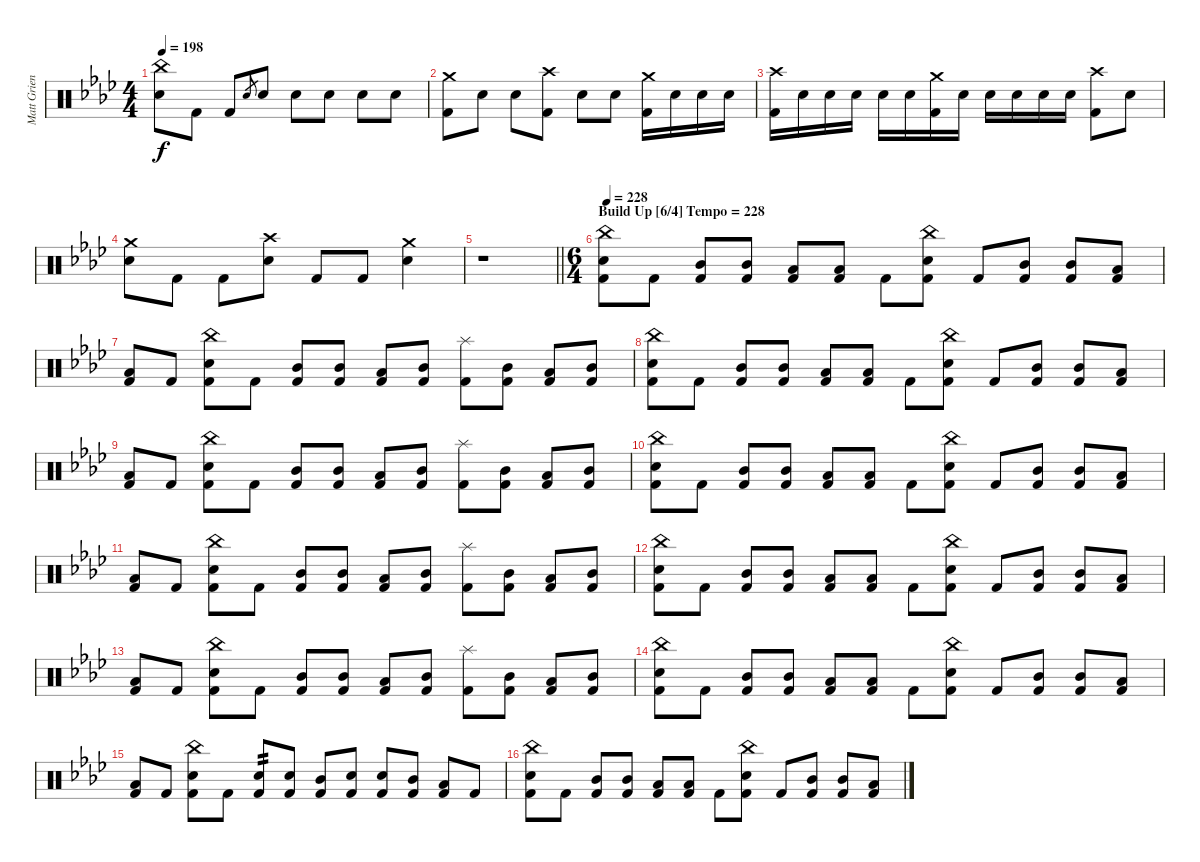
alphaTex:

\track ("Matt Griener [Drum Kit]" "Matt Grien") {instrument percussion}
\staff {score}
\articulation defaults
\ts (4 4)
\tempo 198
\clef neutral
\ks fminor
("China (hit)" "Electric Snare (hit)").8{dy f} "Kick (hit) 2".8 "Kick (hit) 2".8 "Electric Snare (hit)".8{gr} "Electric Snare (hit)".8 "Electric Snare (hit)".8 "Electric Snare (hit)".8 "Electric Snare (hit)".8 "Electric Snare (hit)".8 |
("Crash medium (hit)" "Kick (hit) 2").8 "Electric Snare (hit)".8 "Electric Snare (hit)".8 ("Crash high (hit)" "Kick (hit) 2").8 "Electric Snare (hit)".8 "Electric Snare (hit)".8 ("Crash medium (hit)" "Kick (hit) 2").16 "Electric Snare (hit)".16 "Electric Snare (hit)".16 "Electric Snare (hit)".16 |
("Crash high (hit)" "Kick (hit) 2").16 "Electric Snare (hit)".16 "Electric Snare (hit)".16 "Electric Snare (hit)".16 "Electric Snare (hit)".16 "Electric Snare (hit)".16 ("Crash medium (hit)" "Kick (hit) 2").16 "Electric Snare (hit)".16 "Electric Snare (hit)".16 "Electric Snare (hit)".16 "Electric Snare (hit)".16 "Electric Snare (hit)".16 ("Crash high (hit)" "Kick (hit) 2").8 "Electric Snare (hit)".8 |
("Crash medium (hit)" "Electric Snare (hit)").8 "Kick (hit) 2".8 "Kick (hit) 2".8 ("Crash high (hit)" "Electric Snare (hit)").8 "Kick (hit) 2".8 "Kick (hit) 2".8 ("Crash medium (hit)" "Electric Snare (hit)").4 |
\barLineRight lightlight
r.1 |
\ts (6 4)
\section ("" "Build Up [6/4] Tempo = 228")
\tempo 228
("China (hit)" "Electric Snare (hit)" "Kick (hit) 2").8 "Kick (hit) 2".8 ("Mid Tom (hit)" "Kick (hit) 2").8 ("Mid Tom (hit)" "Kick (hit) 2").8 ("Low Floor Tom (hit)" "Kick (hit) 2").8 ("Low Floor Tom (hit)" "Kick (hit) 2").8 "Kick (hit) 2".8 ("China (hit)" "Electric Snare (hit)" "Kick (hit) 2").8 "Kick (hit) 2".8 ("Mid Tom (hit)" "Kick (hit) 2").8 ("Mid Tom (hit)" "Kick (hit) 2").8 ("Low Floor Tom (hit)" "Kick (hit) 2").8 |
("Low Floor Tom (hit)" "Kick (hit) 2").8 "Kick (hit) 2".8 ("China (hit)" "Electric Snare (hit)" "Kick (hit) 2").8 "Kick (hit) 2".8 ("Mid Tom (hit)" "Kick (hit) 2").8 ("Mid Tom (hit)" "Kick (hit) 2").8 ("Low Floor Tom (hit)" "Kick (hit) 2").8 ("Mid Tom (hit)" "Kick (hit) 2").8 ("Splash (hit)" "Kick (hit) 2").8 ("Mid Tom (hit)" "Kick (hit) 2").8 ("Low Floor Tom (hit)" "Kick (hit) 2").8 ("Mid Tom (hit)" "Kick (hit) 2").8 |
("China (hit)" "Electric Snare (hit)" "Kick (hit) 2").8 "Kick (hit) 2".8 ("Mid Tom (hit)" "Kick (hit) 2").8 ("Mid Tom (hit)" "Kick (hit) 2").8 ("Low Floor Tom (hit)" "Kick (hit) 2").8 ("Low Floor Tom (hit)" "Kick (hit) 2").8 "Kick (hit) 2".8 ("China (hit)" "Electric Snare (hit)" "Kick (hit) 2").8 "Kick (hit) 2".8 ("Mid Tom (hit)" "Kick (hit) 2").8 ("Mid Tom (hit)" "Kick (hit) 2").8 ("Low Floor Tom (hit)" "Kick (hit) 2").8 |
("Low Floor Tom (hit)" "Kick (hit) 2").8 "Kick (hit) 2".8 ("China (hit)" "Electric Snare (hit)" "Kick (hit) 2").8 "Kick (hit) 2".8 ("Mid Tom (hit)" "Kick (hit) 2").8 ("Mid Tom (hit)" "Kick (hit) 2").8 ("Low Floor Tom (hit)" "Kick (hit) 2").8 ("Mid Tom (hit)" "Kick (hit) 2").8 ("Splash (hit)" "Kick (hit) 2").8 ("Mid Tom (hit)" "Kick (hit) 2").8 ("Low Floor Tom (hit)" "Kick (hit) 2").8 ("Mid Tom (hit)" "Kick (hit) 2").8 |
("China (hit)" "Electric Snare (hit)" "Kick (hit) 2").8 "Kick (hit) 2".8 ("Mid Tom (hit)" "Kick (hit) 2").8 ("Mid Tom (hit)" "Kick (hit) 2").8 ("Low Floor Tom (hit)" "Kick (hit) 2").8 ("Low Floor Tom (hit)" "Kick (hit) 2").8 "Kick (hit) 2".8 ("China (hit)" "Electric Snare (hit)" "Kick (hit) 2").8 "Kick (hit) 2".8 ("Mid Tom (hit)" "Kick (hit) 2").8 ("Mid Tom (hit)" "Kick (hit) 2").8 ("Low Floor Tom (hit)" "Kick (hit) 2").8 |
("Low Floor Tom (hit)" "Kick (hit) 2").8 "Kick (hit) 2".8 ("China (hit)" "Electric Snare (hit)" "Kick (hit) 2").8 "Kick (hit) 2".8 ("Mid Tom (hit)" "Kick (hit) 2").8 ("Mid Tom (hit)" "Kick (hit) 2").8 ("Low Floor Tom (hit)" "Kick (hit) 2").8 ("Mid Tom (hit)" "Kick (hit) 2").8 ("Splash (hit)" "Kick (hit) 2").8 ("Mid Tom (hit)" "Kick (hit) 2").8 ("Low Floor Tom (hit)" "Kick (hit) 2").8 ("Mid Tom (hit)" "Kick (hit) 2").8 |
("China (hit)" "Electric Snare (hit)" "Kick (hit) 2").8 "Kick (hit) 2".8 ("Mid Tom (hit)" "Kick (hit) 2").8 ("Mid Tom (hit)" "Kick (hit) 2").8 ("Low Floor Tom (hit)" "Kick (hit) 2").8 ("Low Floor Tom (hit)" "Kick (hit) 2").8 "Kick (hit) 2".8 ("China (hit)" "Electric Snare (hit)" "Kick (hit) 2").8 "Kick (hit) 2".8 ("Mid Tom (hit)" "Kick (hit) 2").8 ("Mid Tom (hit)" "Kick (hit) 2").8 ("Low Floor Tom (hit)" "Kick (hit) 2").8 |
("Low Floor Tom (hit)" "Kick (hit) 2").8 "Kick (hit) 2".8 ("China (hit)" "Electric Snare (hit)" "Kick (hit) 2").8 "Kick (hit) 2".8 ("Mid Tom (hit)" "Kick (hit) 2").8 ("Mid Tom (hit)" "Kick (hit) 2").8 ("Low Floor Tom (hit)" "Kick (hit) 2").8 ("Mid Tom (hit)" "Kick (hit) 2").8 ("Splash (hit)" "Kick (hit) 2").8 ("Mid Tom (hit)" "Kick (hit) 2").8 ("Low Floor Tom (hit)" "Kick (hit) 2").8 ("Mid Tom (hit)" "Kick (hit) 2").8 |
("China (hit)" "Electric Snare (hit)" "Kick (hit) 2").8 "Kick (hit) 2".8 ("Mid Tom (hit)" "Kick (hit) 2").8 ("Mid Tom (hit)" "Kick (hit) 2").8 ("Low Floor Tom (hit)" "Kick (hit) 2").8 ("Low Floor Tom (hit)" "Kick (hit) 2").8 "Kick (hit) 2".8 ("China (hit)" "Electric Snare (hit)" "Kick (hit) 2").8 "Kick (hit) 2".8 ("Mid Tom (hit)" "Kick (hit) 2").8 ("Mid Tom (hit)" "Kick (hit) 2").8 ("Low Floor Tom (hit)" "Kick (hit) 2").8 |
("Low Floor Tom (hit)" "Kick (hit) 2").8 "Kick (hit) 2".8 ("China (hit)" "Electric Snare (hit)" "Kick (hit) 2").8 "Kick (hit) 2".8 ("Electric Snare (hit)" "Kick (hit) 2").8{tp 2} ("Electric Snare (hit)" "Kick (hit) 2").8 ("Mid Tom (hit)" "Kick (hit) 2").8 ("Electric Snare (hit)" "Kick (hit) 2").8 ("Electric Snare (hit)" "Kick (hit) 2").8 ("Mid Tom (hit)" "Kick (hit) 2").8 ("Low Floor Tom (hit)" "Kick (hit) 2").8 "Kick (hit) 2".8 |
("China (hit)" "Electric Snare (hit)" "Kick (hit) 2").8 "Kick (hit) 2".8 ("Mid Tom (hit)" "Kick (hit) 2").8 ("Mid Tom (hit)" "Kick (hit) 2").8 ("Low Floor Tom (hit)" "Kick (hit) 2").8 ("Low Floor Tom (hit)" "Kick (hit) 2").8 "Kick (hit) 2".8 ("China (hit)" "Electric Snare (hit)" "Kick (hit) 2").8 "Kick (hit) 2".8 ("Mid Tom (hit)" "Kick (hit) 2").8 ("Mid Tom (hit)" "Kick (hit) 2").8 ("Low Floor Tom (hit)" "Kick (hit) 2").8
